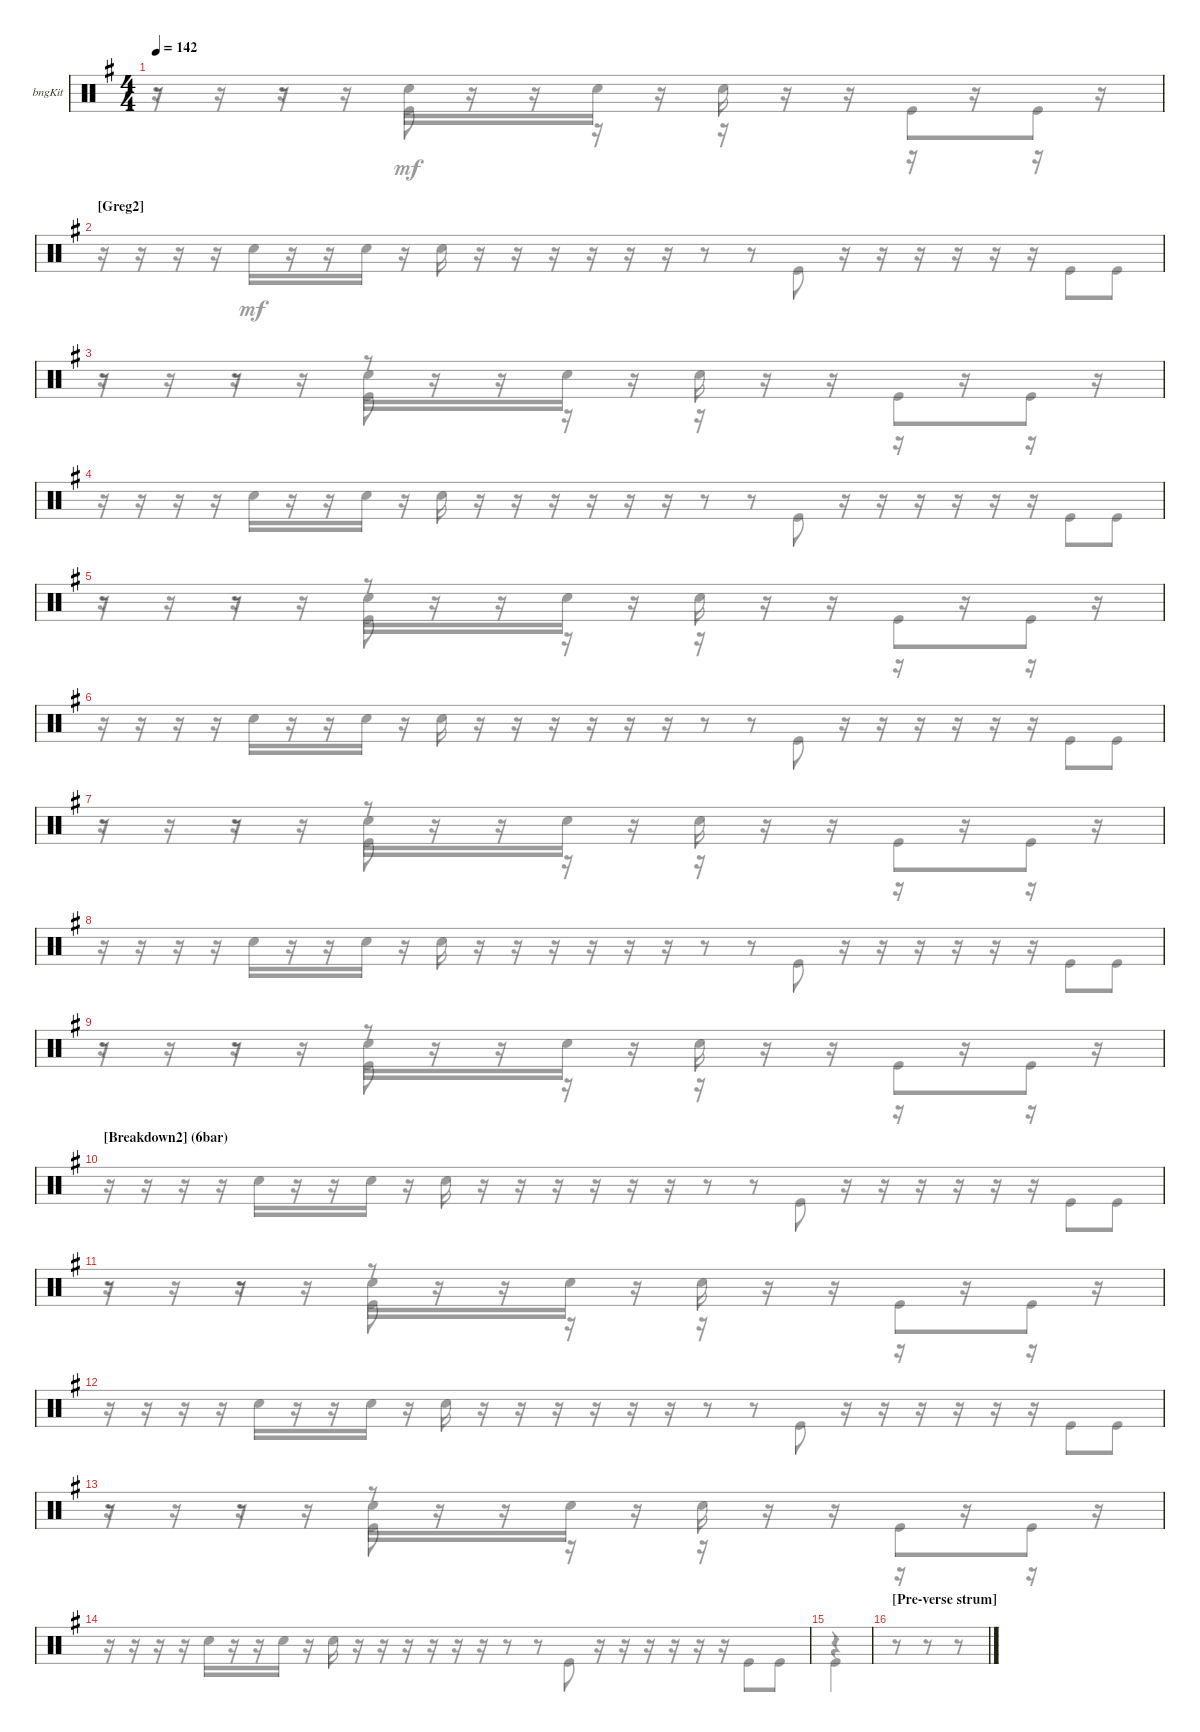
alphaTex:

\bracketExtendMode groupsimilarinstruments
\firstSystemTrackNameOrientation horizontal
\otherSystemsTrackNameOrientation horizontal
\track ("Bongos" "bngKit") {instrument percussion}
\staff {score}
\articulation defaults
\voice
\ts (4 4)
\tempo 142
\clef neutral
\ks eminor
|
\section ("" "[Greg2]")
|
|
|
|
|
|
|
|
\section ("" "[Breakdown2] (6bar)  ")
|
|
|
|
|
|
\section ("" "[Pre-verse strum] ")
\voice
\clef neutral
\ks eminor
r.8{dy mf} r.8 r.8 |
r.16 r.16 r.16 r.16 "Snare (hit) 2".16 r.16 r.16 "Snare (hit) 2".16 r.16 "Snare (hit) 2".16 r.16 r.16 r.16 r.16 r.16 r.16 r.8 r.8 "Kick (hit)".8 r.16 r.16 r.16 r.16 r.16 r.16 "Kick (hit)".8 "Kick (hit)".8 |
r.8 r.8 r.8 |
r.16 r.16 r.16 r.16 "Snare (hit) 2".16 r.16 r.16 "Snare (hit) 2".16 r.16 "Snare (hit) 2".16 r.16 r.16 r.16 r.16 r.16 r.16 r.8 r.8 "Kick (hit)".8 r.16 r.16 r.16 r.16 r.16 r.16 "Kick (hit)".8 "Kick (hit)".8 |
r.8 r.8 r.8 |
r.16 r.16 r.16 r.16 "Snare (hit) 2".16 r.16 r.16 "Snare (hit) 2".16 r.16 "Snare (hit) 2".16 r.16 r.16 r.16 r.16 r.16 r.16 r.8 r.8 "Kick (hit)".8 r.16 r.16 r.16 r.16 r.16 r.16 "Kick (hit)".8 "Kick (hit)".8 |
r.8 r.8 r.8 |
r.16 r.16 r.16 r.16 "Snare (hit) 2".16 r.16 r.16 "Snare (hit) 2".16 r.16 "Snare (hit) 2".16 r.16 r.16 r.16 r.16 r.16 r.16 r.8 r.8 "Kick (hit)".8 r.16 r.16 r.16 r.16 r.16 r.16 "Kick (hit)".8 "Kick (hit)".8 |
r.8 r.8 r.8 |
r.16 r.16 r.16 r.16 "Snare (hit) 2".16 r.16 r.16 "Snare (hit) 2".16 r.16 "Snare (hit) 2".16 r.16 r.16 r.16 r.16 r.16 r.16 r.8 r.8 "Kick (hit)".8 r.16 r.16 r.16 r.16 r.16 r.16 "Kick (hit)".8 "Kick (hit)".8 |
r.8 r.8 r.8 |
r.16 r.16 r.16 r.16 "Snare (hit) 2".16 r.16 r.16 "Snare (hit) 2".16 r.16 "Snare (hit) 2".16 r.16 r.16 r.16 r.16 r.16 r.16 r.8 r.8 "Kick (hit)".8 r.16 r.16 r.16 r.16 r.16 r.16 "Kick (hit)".8 "Kick (hit)".8 |
r.8 r.8 r.8 |
r.16 r.16 r.16 r.16 "Snare (hit) 2".16 r.16 r.16 "Snare (hit) 2".16 r.16 "Snare (hit) 2".16 r.16 r.16 r.16 r.16 r.16 r.16 r.8 r.8 "Kick (hit)".8 r.16 r.16 r.16 r.16 r.16 r.16 "Kick (hit)".8 "Kick (hit)".8 |
r.4 |
\voice
\clef neutral
\ottava regular
\simile none
\ks eminor
r.16{dy mf} r.16 r.16 r.16 "Snare (hit) 2".16 r.16 r.16 "Snare (hit) 2".16 r.16 "Snare (hit) 2".16 r.16 r.16 r.16 r.16 r.16 r.16 |
|
r.16 r.16 r.16 r.16 "Snare (hit) 2".16 r.16 r.16 "Snare (hit) 2".16 r.16 "Snare (hit) 2".16 r.16 r.16 r.16 r.16 r.16 r.16 |
|
r.16 r.16 r.16 r.16 "Snare (hit) 2".16 r.16 r.16 "Snare (hit) 2".16 r.16 "Snare (hit) 2".16 r.16 r.16 r.16 r.16 r.16 r.16 |
|
r.16 r.16 r.16 r.16 "Snare (hit) 2".16 r.16 r.16 "Snare (hit) 2".16 r.16 "Snare (hit) 2".16 r.16 r.16 r.16 r.16 r.16 r.16 |
|
r.16 r.16 r.16 r.16 "Snare (hit) 2".16 r.16 r.16 "Snare (hit) 2".16 r.16 "Snare (hit) 2".16 r.16 r.16 r.16 r.16 r.16 r.16 |
|
r.16 r.16 r.16 r.16 "Snare (hit) 2".16 r.16 r.16 "Snare (hit) 2".16 r.16 "Snare (hit) 2".16 r.16 r.16 r.16 r.16 r.16 r.16 |
|
r.16 r.16 r.16 r.16 "Snare (hit) 2".16 r.16 r.16 "Snare (hit) 2".16 r.16 "Snare (hit) 2".16 r.16 r.16 r.16 r.16 r.16 r.16 |
|
r.4 |
\voice
\clef neutral
\ottava regular
\simile none
\ks eminor
r.8{dy mf} r.8 "Kick (hit)".8 r.16 r.16 r.16 r.16 r.16 r.16 "Kick (hit)".8 "Kick (hit)".8 |
|
r.8 r.8 "Kick (hit)".8 r.16 r.16 r.16 r.16 r.16 r.16 "Kick (hit)".8 "Kick (hit)".8 |
|
r.8 r.8 "Kick (hit)".8 r.16 r.16 r.16 r.16 r.16 r.16 "Kick (hit)".8 "Kick (hit)".8 |
|
r.8 r.8 "Kick (hit)".8 r.16 r.16 r.16 r.16 r.16 r.16 "Kick (hit)".8 "Kick (hit)".8 |
|
r.8 r.8 "Kick (hit)".8 r.16 r.16 r.16 r.16 r.16 r.16 "Kick (hit)".8 "Kick (hit)".8 |
|
r.8 r.8 "Kick (hit)".8 r.16 r.16 r.16 r.16 r.16 r.16 "Kick (hit)".8 "Kick (hit)".8 |
|
r.8 r.8 "Kick (hit)".8 r.16 r.16 r.16 r.16 r.16 r.16 "Kick (hit)".8 "Kick (hit)".8 |
|
"Kick (hit)".4 |
